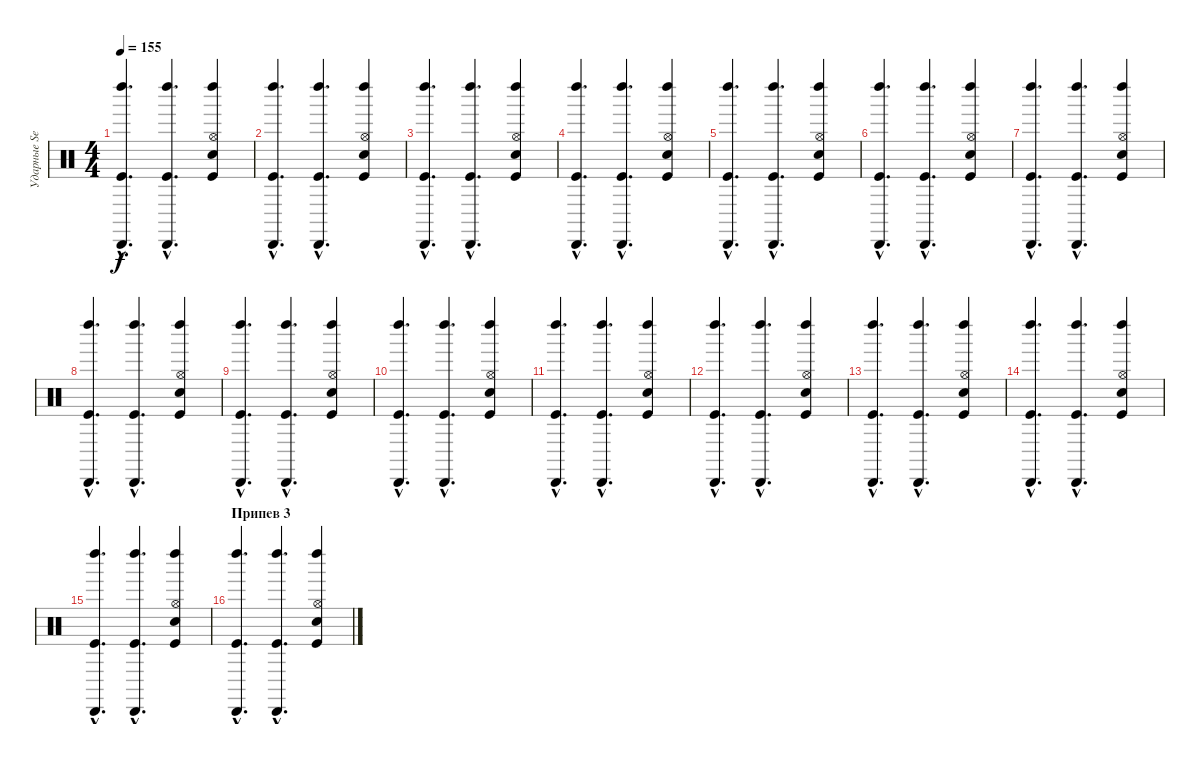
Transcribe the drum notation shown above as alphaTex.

\track ("Ударные Serge Petrone" "Ударные Se") {instrument percussion}
\staff {score}
\articulation defaults
\ts (4 4)
\tempo 155
\clef neutral
\ks c
("Cabasa (hit)"{hac} "Kick (hit)"{hac} "Left Maraca (hit)"{hac}).4{d dy f} ("Cabasa (hit)"{hac} "Kick (hit)"{hac} "Left Maraca (hit)"{hac}).4{d} ("Hi-Hat (open)" "Hand Clap (hit)" "Kick (hit)" "Left Maraca (hit)").4 |
("Cabasa (hit)"{hac} "Kick (hit)"{hac} "Left Maraca (hit)"{hac}).4{d} ("Cabasa (hit)"{hac} "Kick (hit)"{hac} "Left Maraca (hit)"{hac}).4{d} ("Hi-Hat (open)" "Hand Clap (hit)" "Kick (hit)" "Left Maraca (hit)").4 |
("Cabasa (hit)"{hac} "Kick (hit)"{hac} "Left Maraca (hit)"{hac}).4{d} ("Cabasa (hit)"{hac} "Kick (hit)"{hac} "Left Maraca (hit)"{hac}).4{d} ("Hi-Hat (open)" "Hand Clap (hit)" "Kick (hit)" "Left Maraca (hit)").4 |
("Cabasa (hit)"{hac} "Kick (hit)"{hac} "Left Maraca (hit)"{hac}).4{d} ("Cabasa (hit)"{hac} "Kick (hit)"{hac} "Left Maraca (hit)"{hac}).4{d} ("Hi-Hat (open)" "Hand Clap (hit)" "Kick (hit)" "Left Maraca (hit)").4 |
("Cabasa (hit)"{hac} "Kick (hit)"{hac} "Left Maraca (hit)"{hac}).4{d} ("Cabasa (hit)"{hac} "Kick (hit)"{hac} "Left Maraca (hit)"{hac}).4{d} ("Hi-Hat (open)" "Hand Clap (hit)" "Kick (hit)" "Left Maraca (hit)").4 |
("Cabasa (hit)"{hac} "Kick (hit)"{hac} "Left Maraca (hit)"{hac}).4{d} ("Cabasa (hit)"{hac} "Kick (hit)"{hac} "Left Maraca (hit)"{hac}).4{d} ("Hi-Hat (open)" "Hand Clap (hit)" "Kick (hit)" "Left Maraca (hit)").4 |
("Cabasa (hit)"{hac} "Kick (hit)"{hac} "Left Maraca (hit)"{hac}).4{d} ("Cabasa (hit)"{hac} "Kick (hit)"{hac} "Left Maraca (hit)"{hac}).4{d} ("Hi-Hat (open)" "Hand Clap (hit)" "Kick (hit)" "Left Maraca (hit)").4 |
("Cabasa (hit)"{hac} "Kick (hit)"{hac} "Left Maraca (hit)"{hac}).4{d} ("Cabasa (hit)"{hac} "Kick (hit)"{hac} "Left Maraca (hit)"{hac}).4{d} ("Hi-Hat (open)" "Hand Clap (hit)" "Kick (hit)" "Left Maraca (hit)").4 |
("Cabasa (hit)"{hac} "Kick (hit)"{hac} "Left Maraca (hit)"{hac}).4{d} ("Cabasa (hit)"{hac} "Kick (hit)"{hac} "Left Maraca (hit)"{hac}).4{d} ("Hi-Hat (open)" "Hand Clap (hit)" "Kick (hit)" "Left Maraca (hit)").4 |
("Cabasa (hit)"{hac} "Kick (hit)"{hac} "Left Maraca (hit)"{hac}).4{d} ("Cabasa (hit)"{hac} "Kick (hit)"{hac} "Left Maraca (hit)"{hac}).4{d} ("Hi-Hat (open)" "Hand Clap (hit)" "Kick (hit)" "Left Maraca (hit)").4 |
("Cabasa (hit)"{hac} "Kick (hit)"{hac} "Left Maraca (hit)"{hac}).4{d} ("Cabasa (hit)"{hac} "Kick (hit)"{hac} "Left Maraca (hit)"{hac}).4{d} ("Hi-Hat (open)" "Hand Clap (hit)" "Kick (hit)" "Left Maraca (hit)").4 |
("Cabasa (hit)"{hac} "Kick (hit)"{hac} "Left Maraca (hit)"{hac}).4{d} ("Cabasa (hit)"{hac} "Kick (hit)"{hac} "Left Maraca (hit)"{hac}).4{d} ("Hi-Hat (open)" "Hand Clap (hit)" "Kick (hit)" "Left Maraca (hit)").4 |
("Cabasa (hit)"{hac} "Kick (hit)"{hac} "Left Maraca (hit)"{hac}).4{d} ("Cabasa (hit)"{hac} "Kick (hit)"{hac} "Left Maraca (hit)"{hac}).4{d} ("Hi-Hat (open)" "Hand Clap (hit)" "Kick (hit)" "Left Maraca (hit)").4 |
("Cabasa (hit)"{hac} "Kick (hit)"{hac} "Left Maraca (hit)"{hac}).4{d} ("Cabasa (hit)"{hac} "Kick (hit)"{hac} "Left Maraca (hit)"{hac}).4{d} ("Hi-Hat (open)" "Hand Clap (hit)" "Kick (hit)" "Left Maraca (hit)").4 |
("Cabasa (hit)"{hac} "Kick (hit)"{hac} "Left Maraca (hit)"{hac}).4{d} ("Cabasa (hit)"{hac} "Kick (hit)"{hac} "Left Maraca (hit)"{hac}).4{d} ("Hi-Hat (open)" "Hand Clap (hit)" "Kick (hit)" "Left Maraca (hit)").4 |
\section ("" "Припев 3")
("Cabasa (hit)"{hac} "Kick (hit)"{hac} "Left Maraca (hit)"{hac}).4{d} ("Cabasa (hit)"{hac} "Kick (hit)"{hac} "Left Maraca (hit)"{hac}).4{d} ("Hi-Hat (open)" "Hand Clap (hit)" "Kick (hit)" "Left Maraca (hit)").4
